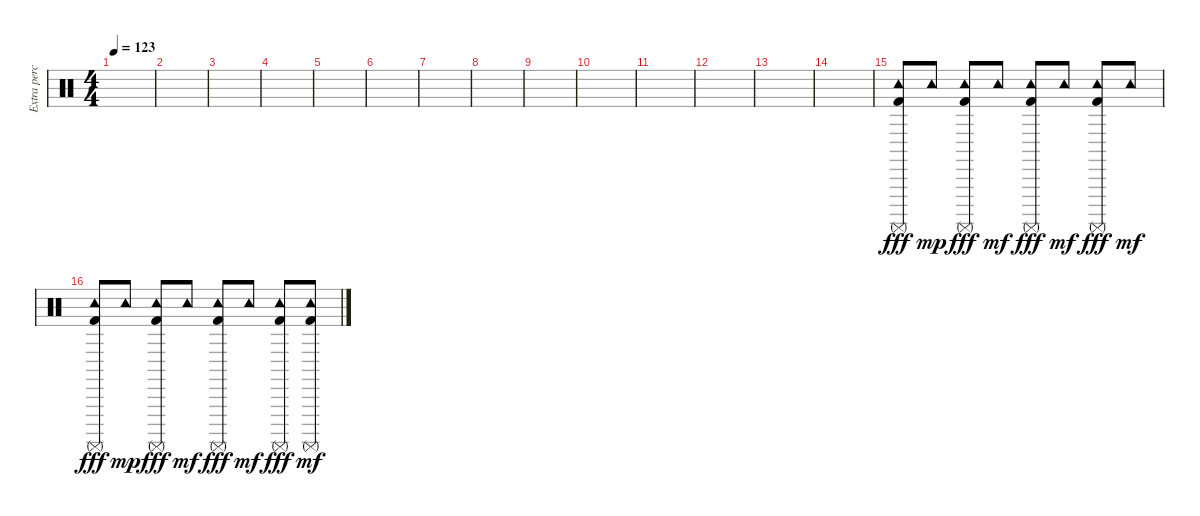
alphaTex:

\track ("Extra percussion" "Extra perc") {instrument percussion}
\staff {score}
\articulation defaults
\ts (4 4)
\tempo 123
\clef neutral
\ks c
|
|
|
|
|
|
|
|
|
|
|
|
|
|
("Tambourine (hit)" "Surdo (mute)" "Kick (hit) 2").8{dy fff} "Tambourine (hit)".8{dy mp} ("Tambourine (hit)" "Surdo (mute)" "Kick (hit) 2").8{dy fff} "Tambourine (hit)".8{dy mf} ("Tambourine (hit)" "Surdo (mute)" "Kick (hit) 2").8{dy fff} "Tambourine (hit)".8{dy mf} ("Tambourine (hit)" "Surdo (mute)" "Kick (hit) 2").8{dy fff} "Tambourine (hit)".8{dy mf} |
("Tambourine (hit)" "Surdo (mute)" "Kick (hit) 2").8{dy fff} "Tambourine (hit)".8{dy mp} ("Tambourine (hit)" "Surdo (mute)" "Kick (hit) 2").8{dy fff} "Tambourine (hit)".8{dy mf} ("Tambourine (hit)" "Surdo (mute)" "Kick (hit) 2").8{dy fff} "Tambourine (hit)".8{dy mf} ("Tambourine (hit)" "Surdo (mute)" "Kick (hit) 2").8{dy fff} ("Tambourine (hit)" "Surdo (mute)" "Kick (hit) 2").8{dy mf}
